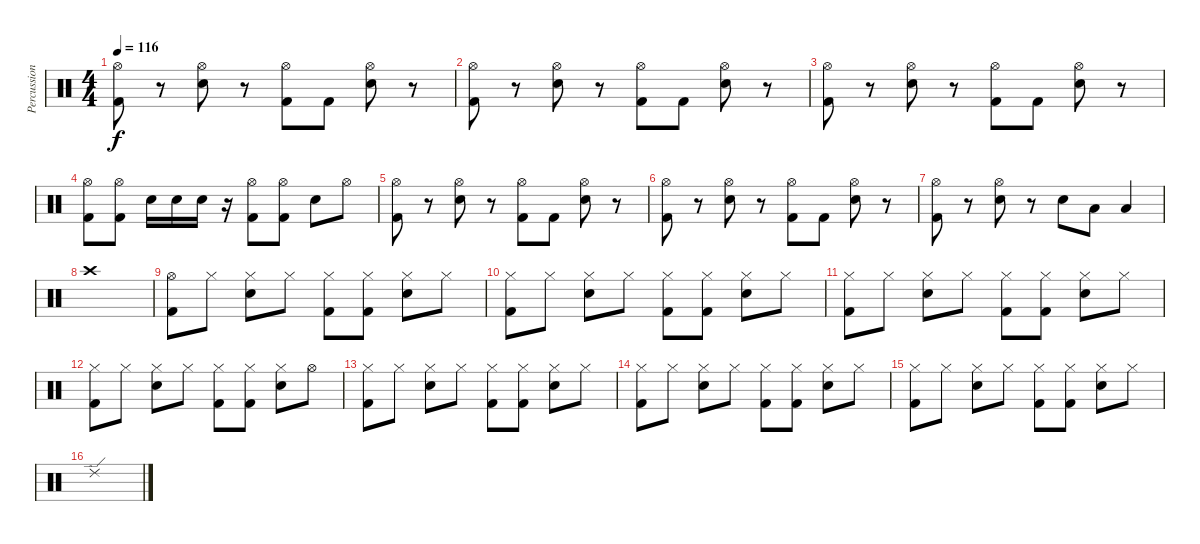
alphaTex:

\track ("Percussion" "Percussion") {instrument percussion}
\staff {score}
\articulation defaults
\ts (4 4)
\tempo 116
\clef neutral
\ks c
("Hi-Hat (open)" "Kick (hit) 2").8{dy f} r.8 ("Hi-Hat (open)" "Snare (hit) 2").8 r.8 ("Hi-Hat (open)" "Kick (hit) 2").8 "Kick (hit) 2".8 ("Hi-Hat (open)" "Snare (hit) 2").8 r.8 |
("Hi-Hat (open)" "Kick (hit) 2").8 r.8 ("Hi-Hat (open)" "Snare (hit) 2").8 r.8 ("Hi-Hat (open)" "Kick (hit) 2").8 "Kick (hit) 2".8 ("Hi-Hat (open)" "Snare (hit) 2").8 r.8 |
("Hi-Hat (open)" "Kick (hit) 2").8 r.8 ("Hi-Hat (open)" "Snare (hit) 2").8 r.8 ("Hi-Hat (open)" "Kick (hit) 2").8 "Kick (hit) 2".8 ("Hi-Hat (open)" "Snare (hit) 2").8 r.8 |
("Hi-Hat (open)" "Kick (hit) 2").8 ("Hi-Hat (open)" "Kick (hit) 2").8 "Snare (hit) 2".16 "Snare (hit) 2".16 "Snare (hit) 2".16 r.16 ("Hi-Hat (open)" "Kick (hit) 2").8 ("Hi-Hat (open)" "Kick (hit) 2").8 "Snare (hit) 2".8 "Hi-Hat (open)".8 |
("Hi-Hat (open)" "Kick (hit) 2").8 r.8 ("Hi-Hat (open)" "Snare (hit) 2").8 r.8 ("Hi-Hat (open)" "Kick (hit) 2").8 "Kick (hit) 2".8 ("Hi-Hat (open)" "Snare (hit) 2").8 r.8 |
("Hi-Hat (open)" "Kick (hit) 2").8 r.8 ("Hi-Hat (open)" "Snare (hit) 2").8 r.8 ("Hi-Hat (open)" "Kick (hit) 2").8 "Kick (hit) 2".8 ("Hi-Hat (open)" "Snare (hit) 2").8 r.8 |
("Hi-Hat (open)" "Kick (hit) 2").8 r.8 ("Hi-Hat (open)" "Snare (hit) 2").8 r.8 "Snare (hit) 2".8 "Low Tom (hit)".8 "Low Floor Tom (hit)".4 |
"Crash high (hit)".1 |
("Hi-Hat (open)" "Kick (hit) 2").8 "Hi-Hat (closed)".8 ("Hi-Hat (closed)" "Snare (hit) 2").8 "Hi-Hat (closed)".8 ("Hi-Hat (closed)" "Kick (hit) 2").8 ("Hi-Hat (closed)" "Kick (hit) 2").8 ("Hi-Hat (closed)" "Snare (hit) 2").8 "Hi-Hat (closed)".8 |
("Hi-Hat (closed)" "Kick (hit) 2").8 "Hi-Hat (closed)".8 ("Hi-Hat (closed)" "Snare (hit) 2").8 "Hi-Hat (closed)".8 ("Hi-Hat (closed)" "Kick (hit) 2").8 ("Hi-Hat (closed)" "Kick (hit) 2").8 ("Hi-Hat (closed)" "Snare (hit) 2").8 "Hi-Hat (closed)".8 |
("Hi-Hat (closed)" "Kick (hit) 2").8 "Hi-Hat (closed)".8 ("Hi-Hat (closed)" "Snare (hit) 2").8 "Hi-Hat (closed)".8 ("Hi-Hat (closed)" "Kick (hit) 2").8 ("Hi-Hat (closed)" "Kick (hit) 2").8 ("Hi-Hat (closed)" "Snare (hit) 2").8 "Hi-Hat (closed)".8 |
("Hi-Hat (closed)" "Kick (hit) 2").8 "Hi-Hat (closed)".8 ("Hi-Hat (closed)" "Snare (hit) 2").8 "Hi-Hat (closed)".8 ("Hi-Hat (closed)" "Kick (hit) 2").8 ("Hi-Hat (closed)" "Kick (hit) 2").8 ("Hi-Hat (closed)" "Snare (hit) 2").8 "Hi-Hat (open)".8 |
("Hi-Hat (closed)" "Kick (hit) 2").8 "Hi-Hat (closed)".8 ("Hi-Hat (closed)" "Snare (hit) 2").8 "Hi-Hat (closed)".8 ("Hi-Hat (closed)" "Kick (hit) 2").8 ("Hi-Hat (closed)" "Kick (hit) 2").8 ("Hi-Hat (closed)" "Snare (hit) 2").8 "Hi-Hat (closed)".8 |
("Hi-Hat (closed)" "Kick (hit) 2").8 "Hi-Hat (closed)".8 ("Hi-Hat (closed)" "Snare (hit) 2").8 "Hi-Hat (closed)".8 ("Hi-Hat (closed)" "Kick (hit) 2").8 ("Hi-Hat (closed)" "Kick (hit) 2").8 ("Hi-Hat (closed)" "Snare (hit) 2").8 "Hi-Hat (closed)".8 |
("Hi-Hat (closed)" "Kick (hit) 2").8 "Hi-Hat (closed)".8 ("Hi-Hat (closed)" "Snare (hit) 2").8 "Hi-Hat (closed)".8 ("Hi-Hat (closed)" "Kick (hit) 2").8 ("Hi-Hat (closed)" "Kick (hit) 2").8 ("Hi-Hat (closed)" "Snare (hit) 2").8 "Hi-Hat (closed)".8 |
"Ride (edge) 2".1
